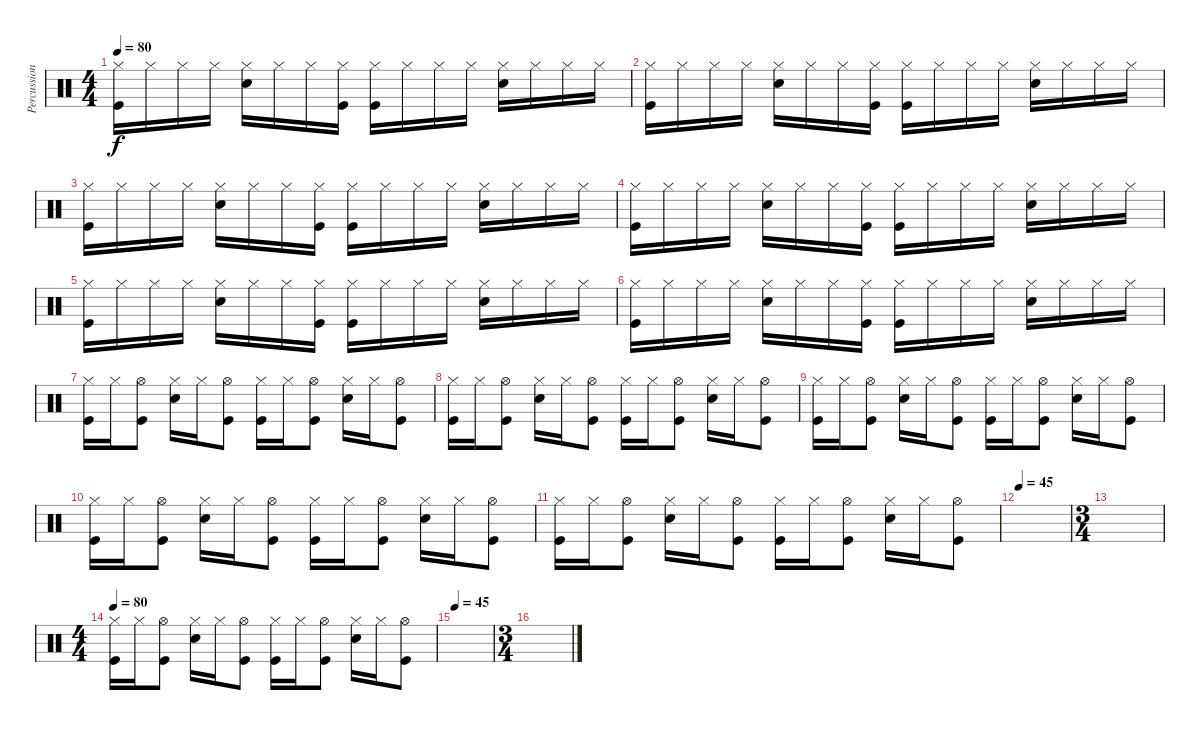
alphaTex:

\track ("Percussion" "Percussion") {instrument percussion}
\staff {score}
\articulation defaults
\ts (4 4)
\tempo 80
\clef neutral
\ks c
("Hi-Hat (closed)" "Kick (hit)").16{dy f} "Hi-Hat (closed)".16 "Hi-Hat (closed)".16 "Hi-Hat (closed)".16 ("Hi-Hat (closed)" "Snare (hit) 2").16 "Hi-Hat (closed)".16 "Hi-Hat (closed)".16 ("Hi-Hat (closed)" "Kick (hit)").16 ("Hi-Hat (closed)" "Kick (hit)").16 "Hi-Hat (closed)".16 "Hi-Hat (closed)".16 "Hi-Hat (closed)".16 ("Hi-Hat (closed)" "Snare (hit) 2").16 "Hi-Hat (closed)".16 "Hi-Hat (closed)".16 "Hi-Hat (closed)".16 |
("Hi-Hat (closed)" "Kick (hit)").16 "Hi-Hat (closed)".16 "Hi-Hat (closed)".16 "Hi-Hat (closed)".16 ("Hi-Hat (closed)" "Snare (hit) 2").16 "Hi-Hat (closed)".16 "Hi-Hat (closed)".16 ("Hi-Hat (closed)" "Kick (hit)").16 ("Hi-Hat (closed)" "Kick (hit)").16 "Hi-Hat (closed)".16 "Hi-Hat (closed)".16 "Hi-Hat (closed)".16 ("Hi-Hat (closed)" "Snare (hit) 2").16 "Hi-Hat (closed)".16 "Hi-Hat (closed)".16 "Hi-Hat (closed)".16 |
("Hi-Hat (closed)" "Kick (hit)").16 "Hi-Hat (closed)".16 "Hi-Hat (closed)".16 "Hi-Hat (closed)".16 ("Hi-Hat (closed)" "Snare (hit) 2").16 "Hi-Hat (closed)".16 "Hi-Hat (closed)".16 ("Hi-Hat (closed)" "Kick (hit)").16 ("Hi-Hat (closed)" "Kick (hit)").16 "Hi-Hat (closed)".16 "Hi-Hat (closed)".16 "Hi-Hat (closed)".16 ("Hi-Hat (closed)" "Snare (hit) 2").16 "Hi-Hat (closed)".16 "Hi-Hat (closed)".16 "Hi-Hat (closed)".16 |
("Hi-Hat (closed)" "Kick (hit)").16 "Hi-Hat (closed)".16 "Hi-Hat (closed)".16 "Hi-Hat (closed)".16 ("Hi-Hat (closed)" "Snare (hit) 2").16 "Hi-Hat (closed)".16 "Hi-Hat (closed)".16 ("Hi-Hat (closed)" "Kick (hit)").16 ("Hi-Hat (closed)" "Kick (hit)").16 "Hi-Hat (closed)".16 "Hi-Hat (closed)".16 "Hi-Hat (closed)".16 ("Hi-Hat (closed)" "Snare (hit) 2").16 "Hi-Hat (closed)".16 "Hi-Hat (closed)".16 "Hi-Hat (closed)".16 |
("Hi-Hat (closed)" "Kick (hit)").16 "Hi-Hat (closed)".16 "Hi-Hat (closed)".16 "Hi-Hat (closed)".16 ("Hi-Hat (closed)" "Snare (hit) 2").16 "Hi-Hat (closed)".16 "Hi-Hat (closed)".16 ("Hi-Hat (closed)" "Kick (hit)").16 ("Hi-Hat (closed)" "Kick (hit)").16 "Hi-Hat (closed)".16 "Hi-Hat (closed)".16 "Hi-Hat (closed)".16 ("Hi-Hat (closed)" "Snare (hit) 2").16 "Hi-Hat (closed)".16 "Hi-Hat (closed)".16 "Hi-Hat (closed)".16 |
("Hi-Hat (closed)" "Kick (hit)").16 "Hi-Hat (closed)".16 "Hi-Hat (closed)".16 "Hi-Hat (closed)".16 ("Hi-Hat (closed)" "Snare (hit) 2").16 "Hi-Hat (closed)".16 "Hi-Hat (closed)".16 ("Hi-Hat (closed)" "Kick (hit)").16 ("Hi-Hat (closed)" "Kick (hit)").16 "Hi-Hat (closed)".16 "Hi-Hat (closed)".16 "Hi-Hat (closed)".16 ("Hi-Hat (closed)" "Snare (hit) 2").16 "Hi-Hat (closed)".16 "Hi-Hat (closed)".16 "Hi-Hat (closed)".16 |
("Hi-Hat (closed)" "Kick (hit)").16 "Hi-Hat (closed)".16 ("Hi-Hat (open)" "Kick (hit)").8 ("Hi-Hat (closed)" "Snare (hit) 2").16 "Hi-Hat (closed)".16 ("Hi-Hat (open)" "Kick (hit)").8 ("Hi-Hat (closed)" "Kick (hit)").16 "Hi-Hat (closed)".16 ("Hi-Hat (open)" "Kick (hit)").8 ("Hi-Hat (closed)" "Snare (hit) 2").16 "Hi-Hat (closed)".16 ("Hi-Hat (open)" "Kick (hit)").8 |
("Hi-Hat (closed)" "Kick (hit)").16 "Hi-Hat (closed)".16 ("Hi-Hat (open)" "Kick (hit)").8 ("Hi-Hat (closed)" "Snare (hit) 2").16 "Hi-Hat (closed)".16 ("Hi-Hat (open)" "Kick (hit)").8 ("Hi-Hat (closed)" "Kick (hit)").16 "Hi-Hat (closed)".16 ("Hi-Hat (open)" "Kick (hit)").8 ("Hi-Hat (closed)" "Snare (hit) 2").16 "Hi-Hat (closed)".16 ("Hi-Hat (open)" "Kick (hit)").8 |
("Hi-Hat (closed)" "Kick (hit)").16 "Hi-Hat (closed)".16 ("Hi-Hat (open)" "Kick (hit)").8 ("Hi-Hat (closed)" "Snare (hit) 2").16 "Hi-Hat (closed)".16 ("Hi-Hat (open)" "Kick (hit)").8 ("Hi-Hat (closed)" "Kick (hit)").16 "Hi-Hat (closed)".16 ("Hi-Hat (open)" "Kick (hit)").8 ("Hi-Hat (closed)" "Snare (hit) 2").16 "Hi-Hat (closed)".16 ("Hi-Hat (open)" "Kick (hit)").8 |
("Hi-Hat (closed)" "Kick (hit)").16 "Hi-Hat (closed)".16 ("Hi-Hat (open)" "Kick (hit)").8 ("Hi-Hat (closed)" "Snare (hit) 2").16 "Hi-Hat (closed)".16 ("Hi-Hat (open)" "Kick (hit)").8 ("Hi-Hat (closed)" "Kick (hit)").16 "Hi-Hat (closed)".16 ("Hi-Hat (open)" "Kick (hit)").8 ("Hi-Hat (closed)" "Snare (hit) 2").16 "Hi-Hat (closed)".16 ("Hi-Hat (open)" "Kick (hit)").8 |
("Hi-Hat (closed)" "Kick (hit)").16 "Hi-Hat (closed)".16 ("Hi-Hat (open)" "Kick (hit)").8 ("Hi-Hat (closed)" "Snare (hit) 2").16 "Hi-Hat (closed)".16 ("Hi-Hat (open)" "Kick (hit)").8 ("Hi-Hat (closed)" "Kick (hit)").16 "Hi-Hat (closed)".16 ("Hi-Hat (open)" "Kick (hit)").8 ("Hi-Hat (closed)" "Snare (hit) 2").16 "Hi-Hat (closed)".16 ("Hi-Hat (open)" "Kick (hit)").8 |
\tempo 45
|
\ts (3 4)
|
\ts (4 4)
\tempo 80
("Hi-Hat (closed)" "Kick (hit)").16 "Hi-Hat (closed)".16 ("Hi-Hat (open)" "Kick (hit)").8 ("Hi-Hat (closed)" "Snare (hit) 2").16 "Hi-Hat (closed)".16 ("Hi-Hat (open)" "Kick (hit)").8 ("Hi-Hat (closed)" "Kick (hit)").16 "Hi-Hat (closed)".16 ("Hi-Hat (open)" "Kick (hit)").8 ("Hi-Hat (closed)" "Snare (hit) 2").16 "Hi-Hat (closed)".16 ("Hi-Hat (open)" "Kick (hit)").8 |
\tempo 45
|
\ts (3 4)
